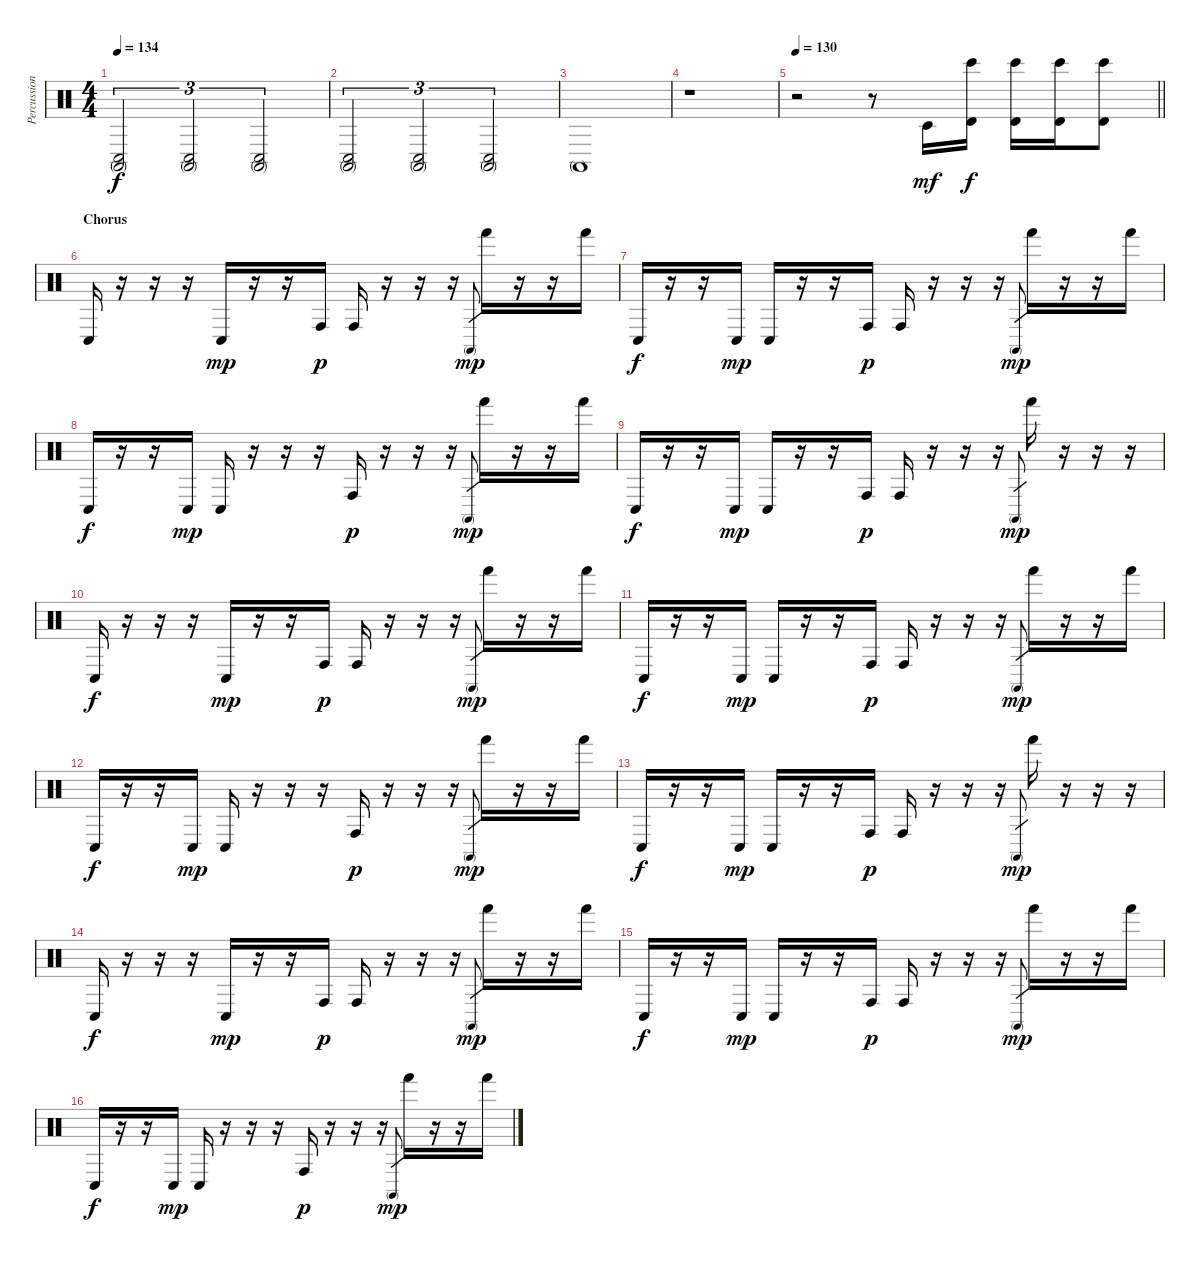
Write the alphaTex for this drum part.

\track ("Percussions" "Percussion") {instrument percussion}
\staff {score}
\articulation defaults
\ts (4 4)
\tempo 134
\clef neutral
\ks c
("Conga low (hit)" "Conga high (mute)").2{tu (3 2) dy f} ("Conga low (hit)" "Conga high (mute)").2{tu (3 2)} ("Conga low (hit)" "Conga high (mute)").2{tu (3 2)} |
("Conga low (hit)" "Conga high (mute)").2{tu (3 2)} ("Conga low (hit)" "Conga high (mute)").2{tu (3 2)} ("Conga low (hit)" "Conga high (mute)").2{tu (3 2)} |
"Conga high (mute)".1 |
r.1 |
\tempo 130
\barLineRight lightlight
r.2 r.8 "Timbale low (hit)".16{dy mf} ("Bongo High (hit)" "Timbale high (hit)").16{dy f} ("Bongo High (hit)" "Timbale high (hit)").16 ("Bongo High (hit)" "Timbale high (hit)").16 ("Bongo High (hit)" "Timbale high (hit)").8 |
\section ("" "Chorus")
"Conga low (hit)".16 r.16 r.16 r.16 "Conga low (hit)".16{dy mp} r.16 r.16 "Conga high (hit)".16{dy p} "Conga high (hit)".16 r.16 r.16 r.16 "Conga high (mute)".8{gr dy mp} "Hand (hit)".16 r.16 r.16 "Hand (hit)".16 |
"Conga low (hit)".16{dy f} r.16 r.16 "Conga low (hit)".16{dy mp} "Conga low (hit)".16 r.16 r.16 "Conga high (hit)".16{dy p} "Conga high (hit)".16 r.16 r.16 r.16 "Conga high (mute)".8{gr dy mp} "Hand (hit)".16 r.16 r.16 "Hand (hit)".16 |
"Conga low (hit)".16{dy f} r.16 r.16 "Conga low (hit)".16{dy mp} "Conga low (hit)".16 r.16 r.16 r.16 "Conga high (hit)".16{dy p} r.16 r.16 r.16 "Conga high (mute)".8{gr dy mp} "Hand (hit)".16 r.16 r.16 "Hand (hit)".16 |
"Conga low (hit)".16{dy f} r.16 r.16 "Conga low (hit)".16{dy mp} "Conga low (hit)".16 r.16 r.16 "Conga high (hit)".16{dy p} "Conga high (hit)".16 r.16 r.16 r.16 "Conga high (mute)".8{gr dy mp} "Hand (hit)".16 r.16 r.16 r.16 |
"Conga low (hit)".16{dy f} r.16 r.16 r.16 "Conga low (hit)".16{dy mp} r.16 r.16 "Conga high (hit)".16{dy p} "Conga high (hit)".16 r.16 r.16 r.16 "Conga high (mute)".8{gr dy mp} "Hand (hit)".16 r.16 r.16 "Hand (hit)".16 |
"Conga low (hit)".16{dy f} r.16 r.16 "Conga low (hit)".16{dy mp} "Conga low (hit)".16 r.16 r.16 "Conga high (hit)".16{dy p} "Conga high (hit)".16 r.16 r.16 r.16 "Conga high (mute)".8{gr dy mp} "Hand (hit)".16 r.16 r.16 "Hand (hit)".16 |
"Conga low (hit)".16{dy f} r.16 r.16 "Conga low (hit)".16{dy mp} "Conga low (hit)".16 r.16 r.16 r.16 "Conga high (hit)".16{dy p} r.16 r.16 r.16 "Conga high (mute)".8{gr dy mp} "Hand (hit)".16 r.16 r.16 "Hand (hit)".16 |
"Conga low (hit)".16{dy f} r.16 r.16 "Conga low (hit)".16{dy mp} "Conga low (hit)".16 r.16 r.16 "Conga high (hit)".16{dy p} "Conga high (hit)".16 r.16 r.16 r.16 "Conga high (mute)".8{gr dy mp} "Hand (hit)".16 r.16 r.16 r.16 |
"Conga low (hit)".16{dy f} r.16 r.16 r.16 "Conga low (hit)".16{dy mp} r.16 r.16 "Conga high (hit)".16{dy p} "Conga high (hit)".16 r.16 r.16 r.16 "Conga high (mute)".8{gr dy mp} "Hand (hit)".16 r.16 r.16 "Hand (hit)".16 |
"Conga low (hit)".16{dy f} r.16 r.16 "Conga low (hit)".16{dy mp} "Conga low (hit)".16 r.16 r.16 "Conga high (hit)".16{dy p} "Conga high (hit)".16 r.16 r.16 r.16 "Conga high (mute)".8{gr dy mp} "Hand (hit)".16 r.16 r.16 "Hand (hit)".16 |
"Conga low (hit)".16{dy f} r.16 r.16 "Conga low (hit)".16{dy mp} "Conga low (hit)".16 r.16 r.16 r.16 "Conga high (hit)".16{dy p} r.16 r.16 r.16 "Conga high (mute)".8{gr dy mp} "Hand (hit)".16 r.16 r.16 "Hand (hit)".16
